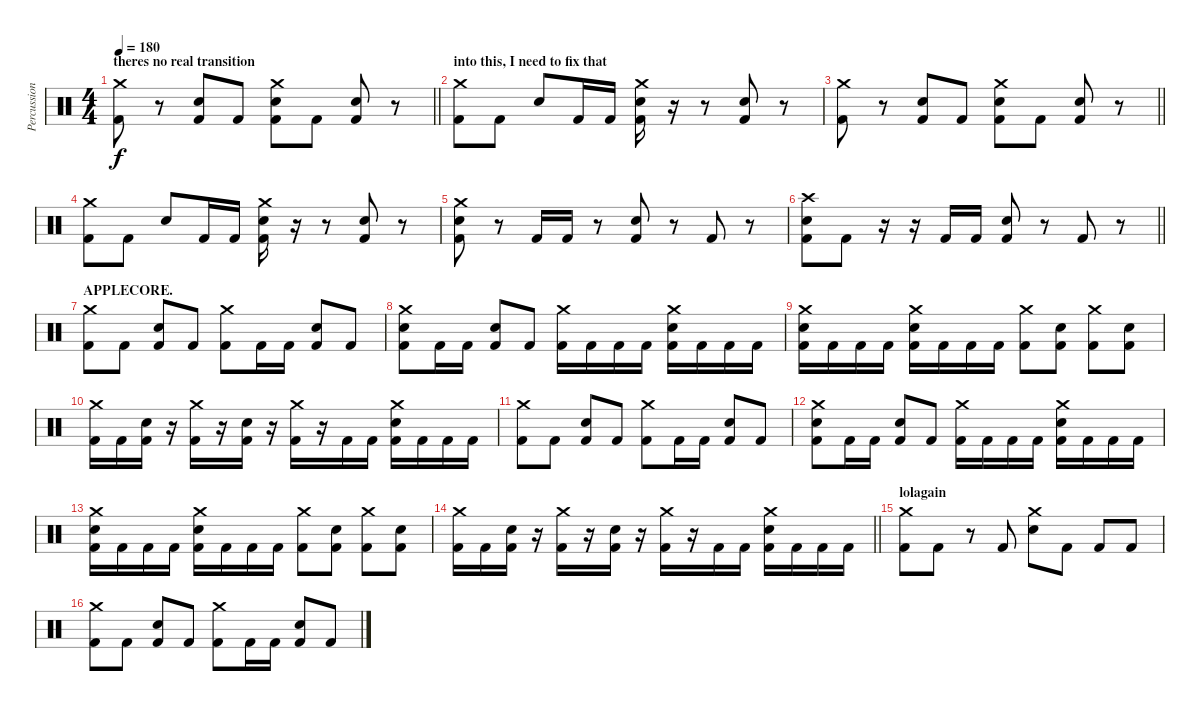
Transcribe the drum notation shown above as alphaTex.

\track ("Percussion" "Percussion") {instrument percussion}
\staff {score}
\articulation defaults
\ts (4 4)
\section ("" "theres no real transition")
\tempo 180
\clef neutral
\barLineRight lightlight
\ks c
("Crash medium (hit)" "Kick (hit) 2").8{dy f} r.8 ("Electric Snare (hit)" "Kick (hit) 2").8 "Kick (hit) 2".8 ("Crash medium (hit)" "Electric Snare (hit)" "Kick (hit) 2").8 "Kick (hit) 2".8 ("Electric Snare (hit)" "Kick (hit) 2").8 r.8 |
\section ("" "into this, I need to fix that")
("Crash medium (hit)" "Kick (hit) 2").8 "Kick (hit) 2".8 "Electric Snare (hit)".8 "Kick (hit) 2".16 "Kick (hit) 2".16 ("Crash medium (hit)" "Electric Snare (hit)" "Kick (hit) 2").16 r.16 r.8 ("Electric Snare (hit)" "Kick (hit) 2").8 r.8 |
\barLineRight lightlight
("Crash medium (hit)" "Kick (hit) 2").8 r.8 ("Electric Snare (hit)" "Kick (hit) 2").8 "Kick (hit) 2".8 ("Crash medium (hit)" "Electric Snare (hit)" "Kick (hit) 2").8 "Kick (hit) 2".8 ("Electric Snare (hit)" "Kick (hit) 2").8 r.8 |
("Crash medium (hit)" "Kick (hit) 2").8 "Kick (hit) 2".8 "Electric Snare (hit)".8 "Kick (hit) 2".16 "Kick (hit) 2".16 ("Crash medium (hit)" "Electric Snare (hit)" "Kick (hit) 2").16 r.16 r.8 ("Electric Snare (hit)" "Kick (hit) 2").8 r.8 |
("Crash medium (hit)" "Electric Snare (hit)" "Kick (hit) 2").8 r.8 "Kick (hit) 2".16 "Kick (hit) 2".16 r.8 ("Electric Snare (hit)" "Kick (hit) 2").8 r.8 "Kick (hit) 2".8 r.8 |
\barLineRight lightlight
("Crash high (hit)" "Electric Snare (hit)" "Kick (hit) 2").8 "Kick (hit) 2".8 r.16 r.16 "Kick (hit) 2".16 "Kick (hit) 2".16 ("Electric Snare (hit)" "Kick (hit) 2").8 r.8 "Kick (hit) 2".8 r.8 |
\section ("" "APPLECORE.")
("Crash medium (hit)" "Kick (hit) 2").8 "Kick (hit) 2".8 ("Electric Snare (hit)" "Kick (hit) 2").8 "Kick (hit) 2".8 ("Crash medium (hit)" "Kick (hit) 2").8 "Kick (hit) 2".16 "Kick (hit) 2".16 ("Electric Snare (hit)" "Kick (hit) 2").8 "Kick (hit) 2".8 |
("Crash medium (hit)" "Electric Snare (hit)" "Kick (hit) 2").8 "Kick (hit) 2".16 "Kick (hit) 2".16 ("Electric Snare (hit)" "Kick (hit) 2").8 "Kick (hit) 2".8 ("Crash medium (hit)" "Kick (hit) 2").16 "Kick (hit) 2".16 "Kick (hit) 2".16 "Kick (hit) 2".16 ("Crash medium (hit)" "Electric Snare (hit)" "Kick (hit) 2").16 "Kick (hit) 2".16 "Kick (hit) 2".16 "Kick (hit) 2".16 |
("Crash medium (hit)" "Electric Snare (hit)" "Kick (hit) 2").16 "Kick (hit) 2".16 "Kick (hit) 2".16 "Kick (hit) 2".16 ("Crash medium (hit)" "Electric Snare (hit)" "Kick (hit) 2").16 "Kick (hit) 2".16 "Kick (hit) 2".16 "Kick (hit) 2".16 ("Crash medium (hit)" "Kick (hit) 2").8 ("Electric Snare (hit)" "Kick (hit) 2").8 ("Crash medium (hit)" "Kick (hit) 2").8 ("Electric Snare (hit)" "Kick (hit) 2").8 |
("Crash medium (hit)" "Kick (hit) 2").16 "Kick (hit) 2".16 ("Electric Snare (hit)" "Kick (hit) 2").16 r.16 ("Crash medium (hit)" "Kick (hit) 2").16 r.16 ("Electric Snare (hit)" "Kick (hit) 2").16 r.16 ("Crash medium (hit)" "Kick (hit) 2").16 r.16 "Kick (hit) 2".16 "Kick (hit) 2".16 ("Crash medium (hit)" "Electric Snare (hit)" "Kick (hit) 2").16 "Kick (hit) 2".16 "Kick (hit) 2".16 "Kick (hit) 2".16 |
("Crash medium (hit)" "Kick (hit) 2").8 "Kick (hit) 2".8 ("Electric Snare (hit)" "Kick (hit) 2").8 "Kick (hit) 2".8 ("Crash medium (hit)" "Kick (hit) 2").8 "Kick (hit) 2".16 "Kick (hit) 2".16 ("Electric Snare (hit)" "Kick (hit) 2").8 "Kick (hit) 2".8 |
("Crash medium (hit)" "Electric Snare (hit)" "Kick (hit) 2").8 "Kick (hit) 2".16 "Kick (hit) 2".16 ("Electric Snare (hit)" "Kick (hit) 2").8 "Kick (hit) 2".8 ("Crash medium (hit)" "Kick (hit) 2").16 "Kick (hit) 2".16 "Kick (hit) 2".16 "Kick (hit) 2".16 ("Crash medium (hit)" "Electric Snare (hit)" "Kick (hit) 2").16 "Kick (hit) 2".16 "Kick (hit) 2".16 "Kick (hit) 2".16 |
("Crash medium (hit)" "Electric Snare (hit)" "Kick (hit) 2").16 "Kick (hit) 2".16 "Kick (hit) 2".16 "Kick (hit) 2".16 ("Crash medium (hit)" "Electric Snare (hit)" "Kick (hit) 2").16 "Kick (hit) 2".16 "Kick (hit) 2".16 "Kick (hit) 2".16 ("Crash medium (hit)" "Kick (hit) 2").8 ("Electric Snare (hit)" "Kick (hit) 2").8 ("Crash medium (hit)" "Kick (hit) 2").8 ("Electric Snare (hit)" "Kick (hit) 2").8 |
\barLineRight lightlight
("Crash medium (hit)" "Kick (hit) 2").16 "Kick (hit) 2".16 ("Electric Snare (hit)" "Kick (hit) 2").16 r.16 ("Crash medium (hit)" "Kick (hit) 2").16 r.16 ("Electric Snare (hit)" "Kick (hit) 2").16 r.16 ("Crash medium (hit)" "Kick (hit) 2").16 r.16 "Kick (hit) 2".16 "Kick (hit) 2".16 ("Crash medium (hit)" "Electric Snare (hit)" "Kick (hit) 2").16 "Kick (hit) 2".16 "Kick (hit) 2".16 "Kick (hit) 2".16 |
\section ("" "lolagain")
("Crash medium (hit)" "Kick (hit) 2").8 "Kick (hit) 2".8 r.8 "Kick (hit) 2".8 ("Crash medium (hit)" "Electric Snare (hit)").8 "Kick (hit) 2".8 "Kick (hit) 2".8 "Kick (hit) 2".8 |
("Crash medium (hit)" "Kick (hit) 2").8 "Kick (hit) 2".8 ("Electric Snare (hit)" "Kick (hit) 2").8 "Kick (hit) 2".8 ("Crash medium (hit)" "Kick (hit) 2").8 "Kick (hit) 2".16 "Kick (hit) 2".16 ("Electric Snare (hit)" "Kick (hit) 2").8 "Kick (hit) 2".8
